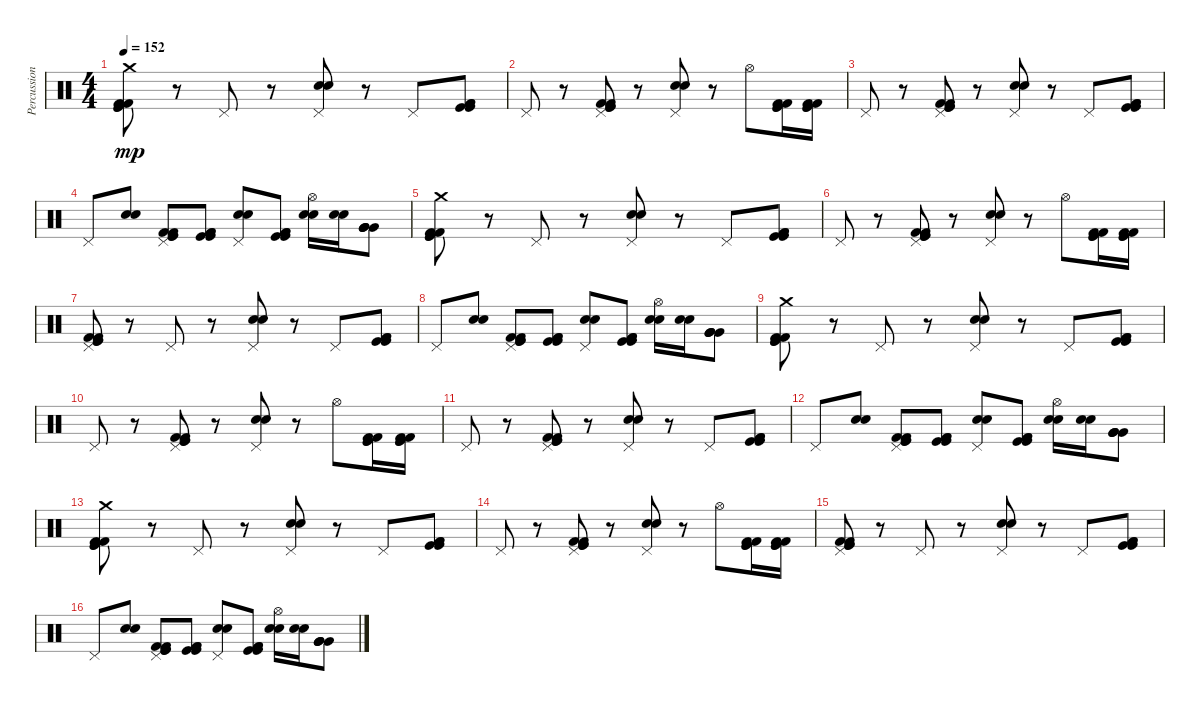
\track ("Percussion" "Percussion") {instrument percussion}
\staff {score}
\articulation defaults
\ts (4 4)
\tempo 152
\clef neutral
\ks c
("Crash medium (hit)" "Kick (hit) 2" "Kick (hit)" "Kick (hit) 2" "Kick (hit)").8{dy mp} r.8 "Pedal Hi-Hat (hit)".8 r.8 ("Pedal Hi-Hat (hit)" "Electric Snare (hit)" "Snare (hit) 2").8 r.8 "Pedal Hi-Hat (hit)".8 ("Kick (hit) 2" "Kick (hit)" "Kick (hit) 2" "Kick (hit)").8 |
"Pedal Hi-Hat (hit)".8 r.8 ("Pedal Hi-Hat (hit)" "Kick (hit) 2" "Kick (hit)" "Kick (hit) 2" "Kick (hit)").8 r.8 ("Pedal Hi-Hat (hit)" "Electric Snare (hit)" "Snare (hit) 2").8 r.8 "Hi-Hat (open)".8 ("Kick (hit) 2" "Kick (hit)" "Kick (hit) 2" "Kick (hit)").16 ("Kick (hit) 2" "Kick (hit)" "Kick (hit) 2" "Kick (hit)").16 |
"Pedal Hi-Hat (hit)".8 r.8 ("Pedal Hi-Hat (hit)" "Kick (hit) 2" "Kick (hit)" "Kick (hit) 2" "Kick (hit)").8 r.8 ("Pedal Hi-Hat (hit)" "Electric Snare (hit)" "Snare (hit) 2").8 r.8 "Pedal Hi-Hat (hit)".8 ("Kick (hit) 2" "Kick (hit)" "Kick (hit) 2" "Kick (hit)").8 |
"Pedal Hi-Hat (hit)".8 ("Electric Snare (hit)" "Snare (hit) 2").8 ("Pedal Hi-Hat (hit)" "Kick (hit) 2" "Kick (hit)" "Kick (hit) 2" "Kick (hit)").8 ("Kick (hit) 2" "Kick (hit)" "Kick (hit) 2" "Kick (hit)").8 ("Pedal Hi-Hat (hit)" "Electric Snare (hit)" "Snare (hit) 2").8 ("Kick (hit) 2" "Kick (hit)" "Kick (hit) 2" "Kick (hit)").8 ("Hi-Hat (open)" "Electric Snare (hit)" "Snare (hit) 2").16 ("Electric Snare (hit)" "Snare (hit) 2").16 ("Very Low Tom (hit)" "Very Low Tom (hit)" "Very Low Tom (hit)" "Very Low Tom (hit)").8 |
("Crash medium (hit)" "Kick (hit) 2" "Kick (hit)" "Kick (hit) 2" "Kick (hit)").8 r.8 "Pedal Hi-Hat (hit)".8 r.8 ("Pedal Hi-Hat (hit)" "Electric Snare (hit)" "Snare (hit) 2").8 r.8 "Pedal Hi-Hat (hit)".8 ("Kick (hit) 2" "Kick (hit)" "Kick (hit) 2" "Kick (hit)").8 |
"Pedal Hi-Hat (hit)".8 r.8 ("Pedal Hi-Hat (hit)" "Kick (hit) 2" "Kick (hit)" "Kick (hit) 2" "Kick (hit)").8 r.8 ("Pedal Hi-Hat (hit)" "Electric Snare (hit)" "Snare (hit) 2").8 r.8 "Hi-Hat (open)".8 ("Kick (hit) 2" "Kick (hit)" "Kick (hit) 2" "Kick (hit)").16 ("Kick (hit) 2" "Kick (hit)" "Kick (hit) 2" "Kick (hit)").16 |
("Pedal Hi-Hat (hit)" "Kick (hit) 2" "Kick (hit)" "Kick (hit) 2" "Kick (hit)").8 r.8 "Pedal Hi-Hat (hit)".8 r.8 ("Pedal Hi-Hat (hit)" "Electric Snare (hit)" "Snare (hit) 2").8 r.8 "Pedal Hi-Hat (hit)".8 ("Kick (hit) 2" "Kick (hit)" "Kick (hit) 2" "Kick (hit)").8 |
"Pedal Hi-Hat (hit)".8 ("Electric Snare (hit)" "Snare (hit) 2").8 ("Pedal Hi-Hat (hit)" "Kick (hit) 2" "Kick (hit)" "Kick (hit) 2" "Kick (hit)").8 ("Kick (hit) 2" "Kick (hit)" "Kick (hit) 2" "Kick (hit)").8 ("Pedal Hi-Hat (hit)" "Electric Snare (hit)" "Snare (hit) 2").8 ("Kick (hit) 2" "Kick (hit)" "Kick (hit) 2" "Kick (hit)").8 ("Hi-Hat (open)" "Electric Snare (hit)" "Snare (hit) 2").16 ("Electric Snare (hit)" "Snare (hit) 2").16 ("Very Low Tom (hit)" "Very Low Tom (hit)" "Very Low Tom (hit)" "Very Low Tom (hit)").8 |
("Crash medium (hit)" "Kick (hit) 2" "Kick (hit)" "Kick (hit) 2" "Kick (hit)").8 r.8 "Pedal Hi-Hat (hit)".8 r.8 ("Pedal Hi-Hat (hit)" "Electric Snare (hit)" "Snare (hit) 2").8 r.8 "Pedal Hi-Hat (hit)".8 ("Kick (hit) 2" "Kick (hit)" "Kick (hit) 2" "Kick (hit)").8 |
"Pedal Hi-Hat (hit)".8 r.8 ("Pedal Hi-Hat (hit)" "Kick (hit) 2" "Kick (hit)" "Kick (hit) 2" "Kick (hit)").8 r.8 ("Pedal Hi-Hat (hit)" "Electric Snare (hit)" "Snare (hit) 2").8 r.8 "Hi-Hat (open)".8 ("Kick (hit) 2" "Kick (hit)" "Kick (hit) 2" "Kick (hit)").16 ("Kick (hit) 2" "Kick (hit)" "Kick (hit) 2" "Kick (hit)").16 |
"Pedal Hi-Hat (hit)".8 r.8 ("Pedal Hi-Hat (hit)" "Kick (hit) 2" "Kick (hit)" "Kick (hit) 2" "Kick (hit)").8 r.8 ("Pedal Hi-Hat (hit)" "Electric Snare (hit)" "Snare (hit) 2").8 r.8 "Pedal Hi-Hat (hit)".8 ("Kick (hit) 2" "Kick (hit)" "Kick (hit) 2" "Kick (hit)").8 |
"Pedal Hi-Hat (hit)".8 ("Electric Snare (hit)" "Snare (hit) 2").8 ("Pedal Hi-Hat (hit)" "Kick (hit) 2" "Kick (hit)" "Kick (hit) 2" "Kick (hit)").8 ("Kick (hit) 2" "Kick (hit)" "Kick (hit) 2" "Kick (hit)").8 ("Pedal Hi-Hat (hit)" "Electric Snare (hit)" "Snare (hit) 2").8 ("Kick (hit) 2" "Kick (hit)" "Kick (hit) 2" "Kick (hit)").8 ("Hi-Hat (open)" "Electric Snare (hit)" "Snare (hit) 2").16 ("Electric Snare (hit)" "Snare (hit) 2").16 ("Very Low Tom (hit)" "Very Low Tom (hit)" "Very Low Tom (hit)" "Very Low Tom (hit)").8 |
("Crash medium (hit)" "Kick (hit) 2" "Kick (hit)" "Kick (hit) 2" "Kick (hit)").8 r.8 "Pedal Hi-Hat (hit)".8 r.8 ("Pedal Hi-Hat (hit)" "Electric Snare (hit)" "Snare (hit) 2").8 r.8 "Pedal Hi-Hat (hit)".8 ("Kick (hit) 2" "Kick (hit)" "Kick (hit) 2" "Kick (hit)").8 |
"Pedal Hi-Hat (hit)".8 r.8 ("Pedal Hi-Hat (hit)" "Kick (hit) 2" "Kick (hit)" "Kick (hit) 2" "Kick (hit)").8 r.8 ("Pedal Hi-Hat (hit)" "Electric Snare (hit)" "Snare (hit) 2").8 r.8 "Hi-Hat (open)".8 ("Kick (hit) 2" "Kick (hit)" "Kick (hit) 2" "Kick (hit)").16 ("Kick (hit) 2" "Kick (hit)" "Kick (hit) 2" "Kick (hit)").16 |
("Pedal Hi-Hat (hit)" "Kick (hit) 2" "Kick (hit)" "Kick (hit) 2" "Kick (hit)").8 r.8 "Pedal Hi-Hat (hit)".8 r.8 ("Pedal Hi-Hat (hit)" "Electric Snare (hit)" "Snare (hit) 2").8 r.8 "Pedal Hi-Hat (hit)".8 ("Kick (hit) 2" "Kick (hit)" "Kick (hit) 2" "Kick (hit)").8 |
"Pedal Hi-Hat (hit)".8 ("Electric Snare (hit)" "Snare (hit) 2").8 ("Pedal Hi-Hat (hit)" "Kick (hit) 2" "Kick (hit)" "Kick (hit) 2" "Kick (hit)").8 ("Kick (hit) 2" "Kick (hit)" "Kick (hit) 2" "Kick (hit)").8 ("Pedal Hi-Hat (hit)" "Electric Snare (hit)" "Snare (hit) 2").8 ("Kick (hit) 2" "Kick (hit)" "Kick (hit) 2" "Kick (hit)").8 ("Hi-Hat (open)" "Electric Snare (hit)" "Snare (hit) 2").16 ("Electric Snare (hit)" "Snare (hit) 2").16 ("Very Low Tom (hit)" "Very Low Tom (hit)" "Very Low Tom (hit)" "Very Low Tom (hit)").8
